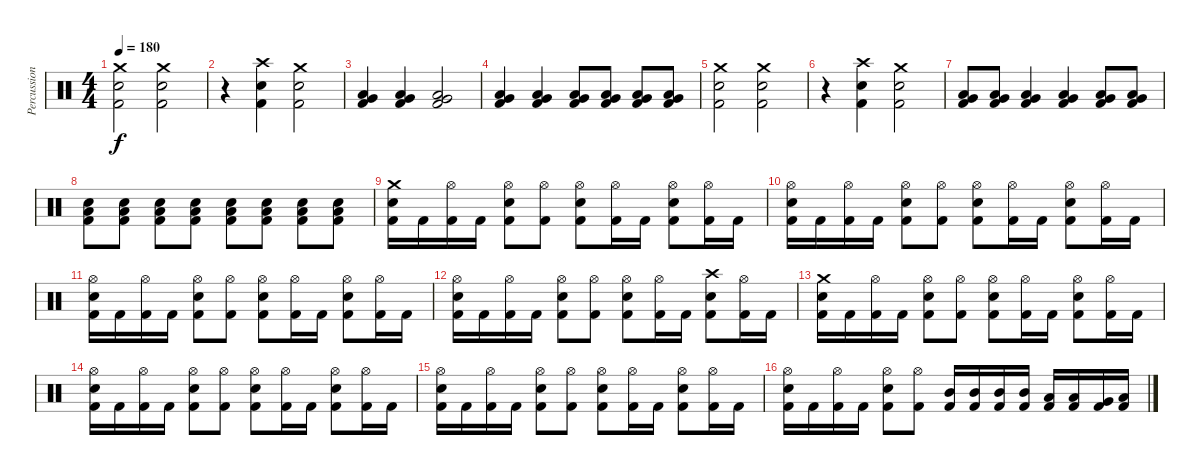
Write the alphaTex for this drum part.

\track ("Percussion" "Percussion") {instrument percussion}
\staff {score}
\articulation defaults
\ts (4 4)
\tempo 180
\clef neutral
\ks c
("Crash medium (hit)" "Snare (hit) 2" "Kick (hit) 2").2{dy f} ("Crash medium (hit)" "Snare (hit) 2" "Kick (hit) 2").2 |
r.4 ("Crash high (hit)" "Snare (hit) 2" "Kick (hit) 2").4 ("Crash medium (hit)" "Snare (hit) 2" "Kick (hit) 2").2 |
("Low Floor Tom (hit)" "Very Low Tom (hit)" "Kick (hit) 2").4 ("Low Floor Tom (hit)" "Very Low Tom (hit)" "Kick (hit) 2").4 ("Low Floor Tom (hit)" "Very Low Tom (hit)" "Kick (hit) 2").2 |
("Low Floor Tom (hit)" "Very Low Tom (hit)" "Kick (hit) 2").4 ("Low Floor Tom (hit)" "Very Low Tom (hit)" "Kick (hit) 2").4 ("Low Floor Tom (hit)" "Very Low Tom (hit)" "Kick (hit) 2").8 ("Low Floor Tom (hit)" "Very Low Tom (hit)" "Kick (hit) 2").8 ("Low Floor Tom (hit)" "Very Low Tom (hit)" "Kick (hit) 2").8 ("Low Floor Tom (hit)" "Very Low Tom (hit)" "Kick (hit) 2").8 |
("Crash medium (hit)" "Snare (hit) 2" "Kick (hit) 2").2 ("Crash medium (hit)" "Snare (hit) 2" "Kick (hit) 2").2 |
r.4 ("Crash high (hit)" "Snare (hit) 2" "Kick (hit) 2").4 ("Crash medium (hit)" "Snare (hit) 2" "Kick (hit) 2").2 |
("Low Floor Tom (hit)" "Very Low Tom (hit)" "Kick (hit) 2").8 ("Low Floor Tom (hit)" "Very Low Tom (hit)" "Kick (hit) 2").8 ("Low Floor Tom (hit)" "Very Low Tom (hit)" "Kick (hit) 2").4 ("Low Floor Tom (hit)" "Very Low Tom (hit)" "Kick (hit) 2").4 ("Low Floor Tom (hit)" "Very Low Tom (hit)" "Kick (hit) 2").8 ("Low Floor Tom (hit)" "Very Low Tom (hit)" "Kick (hit) 2").8 |
("Low Floor Tom (hit)" "Snare (hit) 2" "Kick (hit) 2").8 ("Low Floor Tom (hit)" "Snare (hit) 2" "Kick (hit) 2").8 ("Low Floor Tom (hit)" "Snare (hit) 2" "Kick (hit) 2").8 ("Low Floor Tom (hit)" "Snare (hit) 2" "Kick (hit) 2").8 ("Low Floor Tom (hit)" "Snare (hit) 2" "Kick (hit) 2").8 ("Low Floor Tom (hit)" "Snare (hit) 2" "Kick (hit) 2").8 ("Low Floor Tom (hit)" "Snare (hit) 2" "Kick (hit) 2").8 ("Low Floor Tom (hit)" "Snare (hit) 2" "Kick (hit) 2").8 |
("Crash medium (hit)" "Snare (hit) 2" "Kick (hit) 2").16 "Kick (hit) 2".16 ("Hi-Hat (open)" "Kick (hit) 2").16 "Kick (hit) 2".16 ("Hi-Hat (open)" "Snare (hit) 2" "Kick (hit) 2").8 ("Hi-Hat (open)" "Kick (hit) 2").8 ("Hi-Hat (open)" "Snare (hit) 2" "Kick (hit) 2").8 ("Hi-Hat (open)" "Kick (hit) 2").16 "Kick (hit) 2".16 ("Hi-Hat (open)" "Snare (hit) 2" "Kick (hit) 2").8 ("Hi-Hat (open)" "Kick (hit) 2").16 "Kick (hit) 2".16 |
("Hi-Hat (open)" "Snare (hit) 2" "Kick (hit) 2").16 "Kick (hit) 2".16 ("Hi-Hat (open)" "Kick (hit) 2").16 "Kick (hit) 2".16 ("Hi-Hat (open)" "Snare (hit) 2" "Kick (hit) 2").8 ("Hi-Hat (open)" "Kick (hit) 2").8 ("Hi-Hat (open)" "Snare (hit) 2" "Kick (hit) 2").8 ("Hi-Hat (open)" "Kick (hit) 2").16 "Kick (hit) 2".16 ("Hi-Hat (open)" "Snare (hit) 2" "Kick (hit) 2").8 ("Hi-Hat (open)" "Kick (hit) 2").16 "Kick (hit) 2".16 |
("Hi-Hat (open)" "Snare (hit) 2" "Kick (hit) 2").16 "Kick (hit) 2".16 ("Hi-Hat (open)" "Kick (hit) 2").16 "Kick (hit) 2".16 ("Hi-Hat (open)" "Snare (hit) 2" "Kick (hit) 2").8 ("Hi-Hat (open)" "Kick (hit) 2").8 ("Hi-Hat (open)" "Snare (hit) 2" "Kick (hit) 2").8 ("Hi-Hat (open)" "Kick (hit) 2").16 "Kick (hit) 2".16 ("Hi-Hat (open)" "Snare (hit) 2" "Kick (hit) 2").8 ("Hi-Hat (open)" "Kick (hit) 2").16 "Kick (hit) 2".16 |
("Hi-Hat (open)" "Snare (hit) 2" "Kick (hit) 2").16 "Kick (hit) 2".16 ("Hi-Hat (open)" "Kick (hit) 2").16 "Kick (hit) 2".16 ("Hi-Hat (open)" "Snare (hit) 2" "Kick (hit) 2").8 ("Hi-Hat (open)" "Kick (hit) 2").8 ("Hi-Hat (open)" "Snare (hit) 2" "Kick (hit) 2").8 ("Hi-Hat (open)" "Kick (hit) 2").16 "Kick (hit) 2".16 ("Crash high (hit)" "Snare (hit) 2" "Kick (hit) 2").8 ("Hi-Hat (open)" "Kick (hit) 2").16 "Kick (hit) 2".16 |
("Crash medium (hit)" "Snare (hit) 2" "Kick (hit) 2").16 "Kick (hit) 2".16 ("Hi-Hat (open)" "Kick (hit) 2").16 "Kick (hit) 2".16 ("Hi-Hat (open)" "Snare (hit) 2" "Kick (hit) 2").8 ("Hi-Hat (open)" "Kick (hit) 2").8 ("Hi-Hat (open)" "Snare (hit) 2" "Kick (hit) 2").8 ("Hi-Hat (open)" "Kick (hit) 2").16 "Kick (hit) 2".16 ("Hi-Hat (open)" "Snare (hit) 2" "Kick (hit) 2").8 ("Hi-Hat (open)" "Kick (hit) 2").16 "Kick (hit) 2".16 |
("Hi-Hat (open)" "Snare (hit) 2" "Kick (hit) 2").16 "Kick (hit) 2".16 ("Hi-Hat (open)" "Kick (hit) 2").16 "Kick (hit) 2".16 ("Hi-Hat (open)" "Snare (hit) 2" "Kick (hit) 2").8 ("Hi-Hat (open)" "Kick (hit) 2").8 ("Hi-Hat (open)" "Snare (hit) 2" "Kick (hit) 2").8 ("Hi-Hat (open)" "Kick (hit) 2").16 "Kick (hit) 2".16 ("Hi-Hat (open)" "Snare (hit) 2" "Kick (hit) 2").8 ("Hi-Hat (open)" "Kick (hit) 2").16 "Kick (hit) 2".16 |
("Hi-Hat (open)" "Snare (hit) 2" "Kick (hit) 2").16 "Kick (hit) 2".16 ("Hi-Hat (open)" "Kick (hit) 2").16 "Kick (hit) 2".16 ("Hi-Hat (open)" "Snare (hit) 2" "Kick (hit) 2").8 ("Hi-Hat (open)" "Kick (hit) 2").8 ("Hi-Hat (open)" "Snare (hit) 2" "Kick (hit) 2").8 ("Hi-Hat (open)" "Kick (hit) 2").16 "Kick (hit) 2".16 ("Hi-Hat (open)" "Snare (hit) 2" "Kick (hit) 2").8 ("Hi-Hat (open)" "Kick (hit) 2").16 "Kick (hit) 2".16 |
("Hi-Hat (open)" "Snare (hit) 2" "Kick (hit) 2").16 "Kick (hit) 2".16 ("Hi-Hat (open)" "Kick (hit) 2").16 "Kick (hit) 2".16 ("Hi-Hat (open)" "Snare (hit) 2" "Kick (hit) 2").8 ("Hi-Hat (open)" "Kick (hit) 2").8 ("Mid Tom (hit)" "Kick (hit) 2").16 ("Mid Tom (hit)" "Kick (hit) 2").16 ("Mid Tom (hit)" "Kick (hit) 2").16 ("Mid Tom (hit)" "Kick (hit) 2").16 ("Low Tom (hit)" "Kick (hit) 2").16 ("Low Tom (hit)" "Kick (hit) 2").16 ("Very Low Tom (hit)" "Kick (hit) 2").16 ("Low Floor Tom (hit)" "Kick (hit) 2").16
